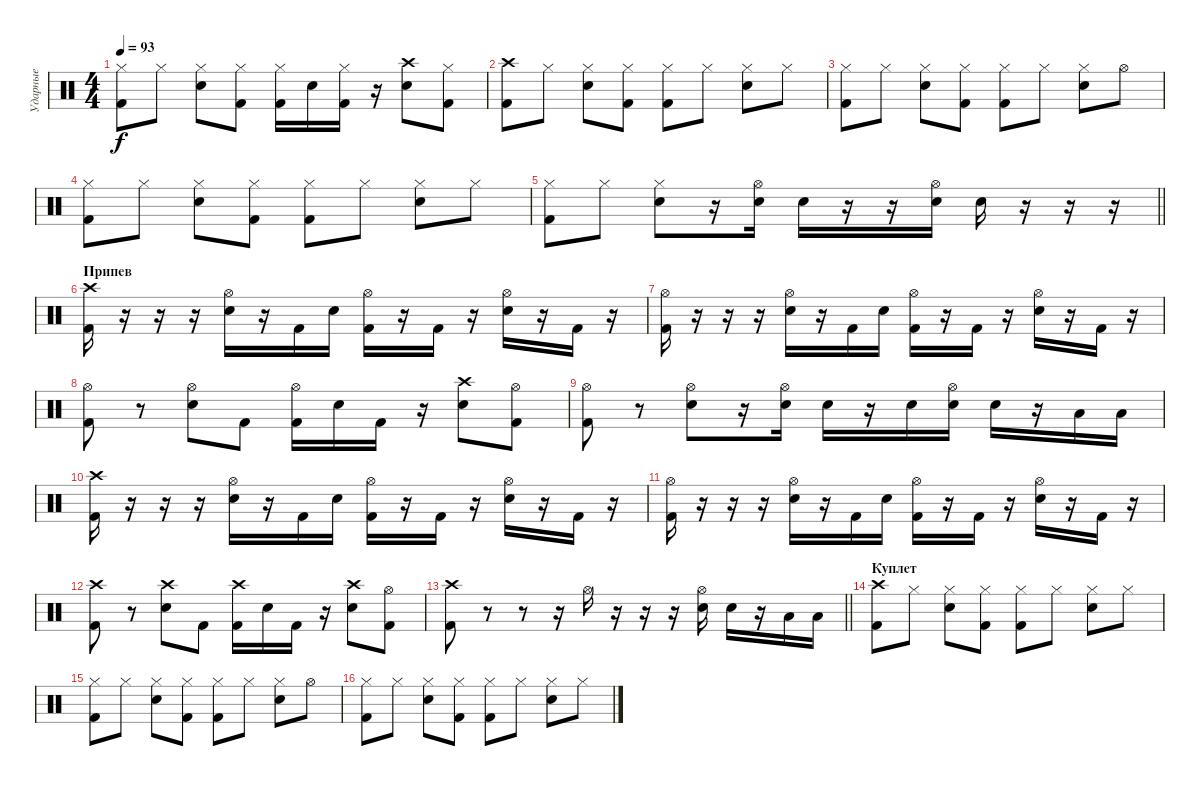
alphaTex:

\track ("Ударные" "Ударные") {instrument percussion}
\staff {score}
\articulation defaults
\ts (4 4)
\tempo 93
\clef neutral
\ks c
("Hi-Hat (closed)" "Kick (hit) 2").8{dy f} "Hi-Hat (closed)".8 ("Hi-Hat (closed)" "Electric Snare (hit)").8 ("Hi-Hat (closed)" "Kick (hit) 2").8 ("Hi-Hat (closed)" "Kick (hit) 2").16 "Electric Snare (hit)".16 ("Hi-Hat (closed)" "Kick (hit) 2").16 r.16 ("Crash high (hit)" "Electric Snare (hit)").8 ("Hi-Hat (closed)" "Kick (hit) 2").8 |
("Crash high (hit)" "Kick (hit) 2").8 "Hi-Hat (closed)".8 ("Hi-Hat (closed)" "Electric Snare (hit)").8 ("Hi-Hat (closed)" "Kick (hit) 2").8 ("Hi-Hat (closed)" "Kick (hit) 2").8 "Hi-Hat (closed)".8 ("Hi-Hat (closed)" "Electric Snare (hit)").8 "Hi-Hat (closed)".8 |
("Hi-Hat (closed)" "Kick (hit) 2").8 "Hi-Hat (closed)".8 ("Hi-Hat (closed)" "Electric Snare (hit)").8 ("Hi-Hat (closed)" "Kick (hit) 2").8 ("Hi-Hat (closed)" "Kick (hit) 2").8 "Hi-Hat (closed)".8 ("Hi-Hat (closed)" "Electric Snare (hit)").8 "Hi-Hat (open)".8 |
("Hi-Hat (closed)" "Kick (hit) 2").8 "Hi-Hat (closed)".8 ("Hi-Hat (closed)" "Electric Snare (hit)").8 ("Hi-Hat (closed)" "Kick (hit) 2").8 ("Hi-Hat (closed)" "Kick (hit) 2").8 "Hi-Hat (closed)".8 ("Hi-Hat (closed)" "Electric Snare (hit)").8 "Hi-Hat (closed)".8 |
\barLineRight lightlight
("Hi-Hat (closed)" "Kick (hit) 2").8 "Hi-Hat (closed)".8 ("Hi-Hat (closed)" "Electric Snare (hit)").8 r.16 ("Hi-Hat (open)" "Electric Snare (hit)").16 "Electric Snare (hit)".16 r.16 r.16 ("Hi-Hat (open)" "Electric Snare (hit)").16 "Electric Snare (hit)".16 r.16 r.16 r.16 |
\section ("" "Припев")
("Crash high (hit)" "Kick (hit) 2").16 r.16 r.16 r.16 ("Hi-Hat (open)" "Electric Snare (hit)").16 r.16 "Kick (hit) 2".16 "Electric Snare (hit)".16 ("Hi-Hat (open)" "Kick (hit) 2").16 r.16 "Kick (hit) 2".16 r.16 ("Hi-Hat (open)" "Electric Snare (hit)").16 r.16 "Kick (hit) 2".16 r.16 |
("Hi-Hat (open)" "Kick (hit) 2").16 r.16 r.16 r.16 ("Hi-Hat (open)" "Electric Snare (hit)").16 r.16 "Kick (hit) 2".16 "Electric Snare (hit)".16 ("Hi-Hat (open)" "Kick (hit) 2").16 r.16 "Kick (hit) 2".16 r.16 ("Hi-Hat (open)" "Electric Snare (hit)").16 r.16 "Kick (hit) 2".16 r.16 |
("Hi-Hat (open)" "Kick (hit) 2").8 r.8 ("Hi-Hat (open)" "Electric Snare (hit)").8 "Kick (hit) 2".8 ("Hi-Hat (open)" "Kick (hit) 2").16 "Electric Snare (hit)".16 "Kick (hit) 2".16 r.16 ("Crash high (hit)" "Electric Snare (hit)").8 ("Hi-Hat (open)" "Kick (hit) 2").8 |
("Hi-Hat (open)" "Kick (hit) 2").8 r.8 ("Hi-Hat (open)" "Electric Snare (hit)").8 r.16 ("Hi-Hat (open)" "Electric Snare (hit)").16 "Electric Snare (hit)".16 r.16 "Electric Snare (hit)".16 ("Hi-Hat (open)" "Electric Snare (hit)").16 "Electric Snare (hit)".16 r.16 "Low Tom (hit)".16 "Low Tom (hit)".16 |
("Crash high (hit)" "Kick (hit) 2").16 r.16 r.16 r.16 ("Hi-Hat (open)" "Electric Snare (hit)").16 r.16 "Kick (hit) 2".16 "Electric Snare (hit)".16 ("Hi-Hat (open)" "Kick (hit) 2").16 r.16 "Kick (hit) 2".16 r.16 ("Hi-Hat (open)" "Electric Snare (hit)").16 r.16 "Kick (hit) 2".16 r.16 |
("Hi-Hat (open)" "Kick (hit) 2").16 r.16 r.16 r.16 ("Hi-Hat (open)" "Electric Snare (hit)").16 r.16 "Kick (hit) 2".16 "Electric Snare (hit)".16 ("Hi-Hat (open)" "Kick (hit) 2").16 r.16 "Kick (hit) 2".16 r.16 ("Hi-Hat (open)" "Electric Snare (hit)").16 r.16 "Kick (hit) 2".16 r.16 |
("Crash high (hit)" "Kick (hit) 2").8 r.8 ("Crash high (hit)" "Electric Snare (hit)").8 "Kick (hit) 2".8 ("Crash high (hit)" "Kick (hit) 2").16 "Electric Snare (hit)".16 "Kick (hit) 2".16 r.16 ("Crash high (hit)" "Electric Snare (hit)").8 ("Hi-Hat (open)" "Kick (hit) 2").8 |
\barLineRight lightlight
("Crash high (hit)" "Kick (hit) 2").8 r.8 r.8 r.16 "Hi-Hat (open)".16 r.16 r.16 r.16 ("Hi-Hat (open)" "Electric Snare (hit)").16 "Electric Snare (hit)".16 r.16 "Low Tom (hit)".16 "Low Tom (hit)".16 |
\section ("" "Куплет")
("Crash high (hit)" "Kick (hit) 2").8 "Hi-Hat (closed)".8 ("Hi-Hat (closed)" "Electric Snare (hit)").8 ("Hi-Hat (closed)" "Kick (hit) 2").8 ("Hi-Hat (closed)" "Kick (hit) 2").8 "Hi-Hat (closed)".8 ("Hi-Hat (closed)" "Electric Snare (hit)").8 "Hi-Hat (closed)".8 |
("Hi-Hat (closed)" "Kick (hit) 2").8 "Hi-Hat (closed)".8 ("Hi-Hat (closed)" "Electric Snare (hit)").8 ("Hi-Hat (closed)" "Kick (hit) 2").8 ("Hi-Hat (closed)" "Kick (hit) 2").8 "Hi-Hat (closed)".8 ("Hi-Hat (closed)" "Electric Snare (hit)").8 "Hi-Hat (open)".8 |
("Hi-Hat (closed)" "Kick (hit) 2").8 "Hi-Hat (closed)".8 ("Hi-Hat (closed)" "Electric Snare (hit)").8 ("Hi-Hat (closed)" "Kick (hit) 2").8 ("Hi-Hat (closed)" "Kick (hit) 2").8 "Hi-Hat (closed)".8 ("Hi-Hat (closed)" "Electric Snare (hit)").8 "Hi-Hat (closed)".8
